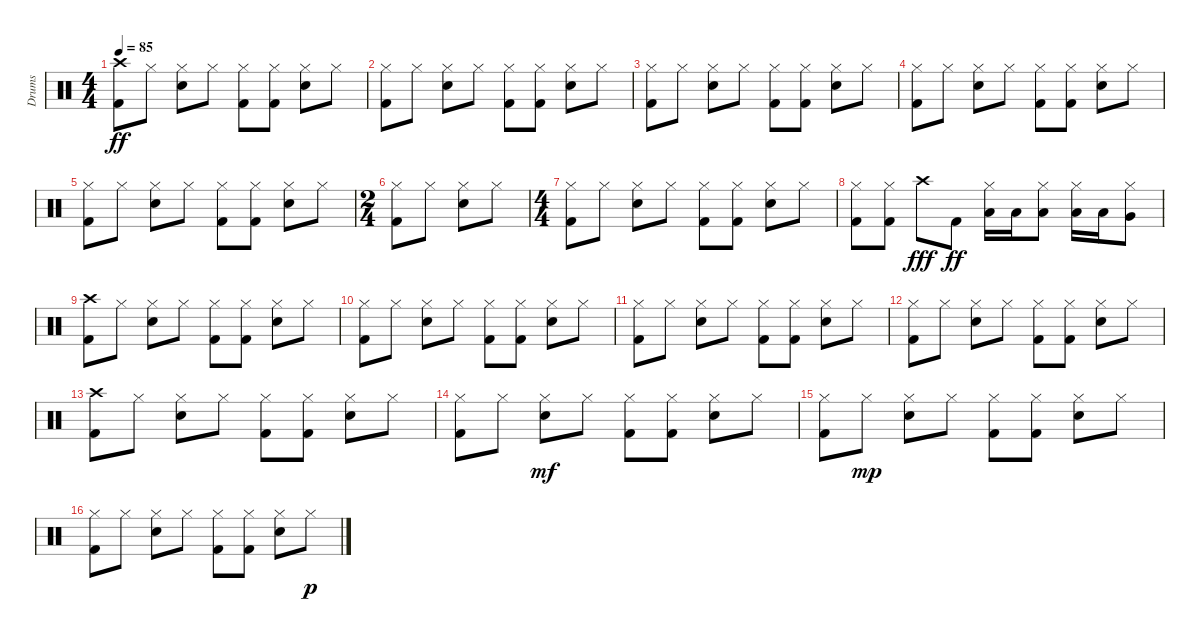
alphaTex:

\track ("Drums" "Drums") {instrument percussion}
\staff {score}
\articulation defaults
\ts (4 4)
\tempo 85
\clef neutral
\ks c
("Kick (hit) 2" "Crash high (hit)").8{dy ff} "Hi-Hat (closed)".8 ("Electric Snare (hit)" "Hi-Hat (closed)").8 "Hi-Hat (closed)".8 ("Kick (hit) 2" "Hi-Hat (closed)").8 ("Kick (hit) 2" "Hi-Hat (closed)").8 ("Electric Snare (hit)" "Hi-Hat (closed)").8 "Hi-Hat (closed)".8 |
("Kick (hit) 2" "Hi-Hat (closed)").8 "Hi-Hat (closed)".8 ("Electric Snare (hit)" "Hi-Hat (closed)").8 "Hi-Hat (closed)".8 ("Kick (hit) 2" "Hi-Hat (closed)").8 ("Kick (hit) 2" "Hi-Hat (closed)").8 ("Electric Snare (hit)" "Hi-Hat (closed)").8 "Hi-Hat (closed)".8 |
("Kick (hit) 2" "Hi-Hat (closed)").8 "Hi-Hat (closed)".8 ("Electric Snare (hit)" "Hi-Hat (closed)").8 "Hi-Hat (closed)".8 ("Kick (hit) 2" "Hi-Hat (closed)").8 ("Kick (hit) 2" "Hi-Hat (closed)").8 ("Electric Snare (hit)" "Hi-Hat (closed)").8 "Hi-Hat (closed)".8 |
("Kick (hit) 2" "Hi-Hat (closed)").8 "Hi-Hat (closed)".8 ("Electric Snare (hit)" "Hi-Hat (closed)").8 "Hi-Hat (closed)".8 ("Kick (hit) 2" "Hi-Hat (closed)").8 ("Kick (hit) 2" "Hi-Hat (closed)").8 ("Electric Snare (hit)" "Hi-Hat (closed)").8 "Hi-Hat (closed)".8 |
("Kick (hit) 2" "Hi-Hat (closed)").8 "Hi-Hat (closed)".8 ("Electric Snare (hit)" "Hi-Hat (closed)").8 "Hi-Hat (closed)".8 ("Kick (hit) 2" "Hi-Hat (closed)").8 ("Kick (hit) 2" "Hi-Hat (closed)").8 ("Electric Snare (hit)" "Hi-Hat (closed)").8 "Hi-Hat (closed)".8 |
\ts (2 4)
("Kick (hit) 2" "Hi-Hat (closed)").8 "Hi-Hat (closed)".8 ("Electric Snare (hit)" "Hi-Hat (closed)").8 "Hi-Hat (closed)".8 |
\ts (4 4)
("Kick (hit) 2" "Hi-Hat (closed)").8 "Hi-Hat (closed)".8 ("Electric Snare (hit)" "Hi-Hat (closed)").8 "Hi-Hat (closed)".8 ("Kick (hit) 2" "Hi-Hat (closed)").8 ("Kick (hit) 2" "Hi-Hat (closed)").8 ("Electric Snare (hit)" "Hi-Hat (closed)").8 "Hi-Hat (closed)".8 |
("Kick (hit) 2" "Hi-Hat (closed)").8 ("Kick (hit) 2" "Hi-Hat (closed)").8 "Crash high (hit)".8{dy fff} "Kick (hit) 2".8{dy ff} ("Hi-Hat (closed)" "Low Tom (hit)").16 "Low Tom (hit)".16 ("Hi-Hat (closed)" "Low Tom (hit)").8 ("Hi-Hat (closed)" "Low Tom (hit)").16 "Low Tom (hit)".16 ("Hi-Hat (closed)" "Very Low Tom (hit)").8 |
("Kick (hit) 2" "Crash high (hit)").8 "Hi-Hat (closed)".8 ("Electric Snare (hit)" "Hi-Hat (closed)").8 "Hi-Hat (closed)".8 ("Kick (hit) 2" "Hi-Hat (closed)").8 ("Kick (hit) 2" "Hi-Hat (closed)").8 ("Electric Snare (hit)" "Hi-Hat (closed)").8 "Hi-Hat (closed)".8 |
("Kick (hit) 2" "Hi-Hat (closed)").8 "Hi-Hat (closed)".8 ("Electric Snare (hit)" "Hi-Hat (closed)").8 "Hi-Hat (closed)".8 ("Kick (hit) 2" "Hi-Hat (closed)").8 ("Kick (hit) 2" "Hi-Hat (closed)").8 ("Electric Snare (hit)" "Hi-Hat (closed)").8 "Hi-Hat (closed)".8 |
("Kick (hit) 2" "Hi-Hat (closed)").8 "Hi-Hat (closed)".8 ("Electric Snare (hit)" "Hi-Hat (closed)").8 "Hi-Hat (closed)".8 ("Kick (hit) 2" "Hi-Hat (closed)").8 ("Kick (hit) 2" "Hi-Hat (closed)").8 ("Electric Snare (hit)" "Hi-Hat (closed)").8 "Hi-Hat (closed)".8 |
("Kick (hit) 2" "Hi-Hat (closed)").8 "Hi-Hat (closed)".8 ("Electric Snare (hit)" "Hi-Hat (closed)").8 "Hi-Hat (closed)".8 ("Kick (hit) 2" "Hi-Hat (closed)").8 ("Kick (hit) 2" "Hi-Hat (closed)").8 ("Electric Snare (hit)" "Hi-Hat (closed)").8 "Hi-Hat (closed)".8 |
("Kick (hit) 2" "Crash high (hit)").8 "Hi-Hat (closed)".8 ("Electric Snare (hit)" "Hi-Hat (closed)").8 "Hi-Hat (closed)".8 ("Kick (hit) 2" "Hi-Hat (closed)").8 ("Kick (hit) 2" "Hi-Hat (closed)").8 ("Electric Snare (hit)" "Hi-Hat (closed)").8 "Hi-Hat (closed)".8 |
("Kick (hit) 2" "Hi-Hat (closed)").8 "Hi-Hat (closed)".8 ("Electric Snare (hit)" "Hi-Hat (closed)").8{dy mf} "Hi-Hat (closed)".8 ("Kick (hit) 2" "Hi-Hat (closed)").8 ("Kick (hit) 2" "Hi-Hat (closed)").8 ("Electric Snare (hit)" "Hi-Hat (closed)").8 "Hi-Hat (closed)".8 |
("Kick (hit) 2" "Hi-Hat (closed)").8 "Hi-Hat (closed)".8{dy mp} ("Electric Snare (hit)" "Hi-Hat (closed)").8 "Hi-Hat (closed)".8 ("Kick (hit) 2" "Hi-Hat (closed)").8 ("Kick (hit) 2" "Hi-Hat (closed)").8 ("Electric Snare (hit)" "Hi-Hat (closed)").8 "Hi-Hat (closed)".8 |
("Kick (hit) 2" "Hi-Hat (closed)").8 "Hi-Hat (closed)".8 ("Electric Snare (hit)" "Hi-Hat (closed)").8 "Hi-Hat (closed)".8 ("Kick (hit) 2" "Hi-Hat (closed)").8 ("Kick (hit) 2" "Hi-Hat (closed)").8 ("Electric Snare (hit)" "Hi-Hat (closed)").8 "Hi-Hat (closed)".8{dy p}
